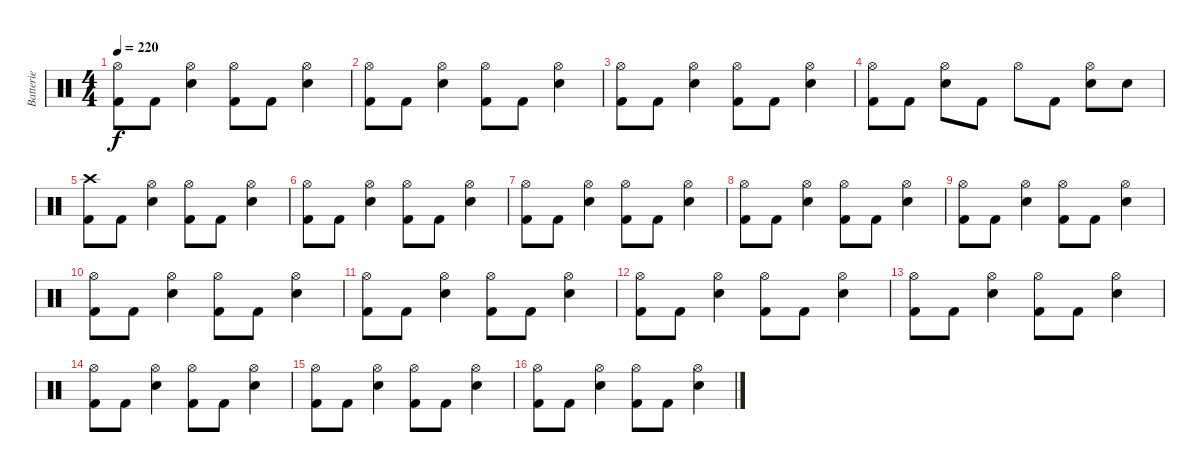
\track ("Batterie" "Batterie") {instrument percussion}
\staff {score}
\articulation defaults
\ts (4 4)
\tempo 220
\clef neutral
\ks c
("Hi-Hat (open)" "Kick (hit) 2").8{dy f} "Kick (hit) 2".8 ("Hi-Hat (open)" "Electric Snare (hit)").4 ("Hi-Hat (open)" "Kick (hit) 2").8 "Kick (hit) 2".8 ("Hi-Hat (open)" "Electric Snare (hit)").4 |
("Hi-Hat (open)" "Kick (hit) 2").8 "Kick (hit) 2".8 ("Hi-Hat (open)" "Electric Snare (hit)").4 ("Hi-Hat (open)" "Kick (hit) 2").8 "Kick (hit) 2".8 ("Hi-Hat (open)" "Electric Snare (hit)").4 |
("Hi-Hat (open)" "Kick (hit) 2").8 "Kick (hit) 2".8 ("Hi-Hat (open)" "Electric Snare (hit)").4 ("Hi-Hat (open)" "Kick (hit) 2").8 "Kick (hit) 2".8 ("Hi-Hat (open)" "Electric Snare (hit)").4 |
("Hi-Hat (open)" "Kick (hit) 2").8 "Kick (hit) 2".8 ("Hi-Hat (open)" "Electric Snare (hit)").8 "Kick (hit) 2".8 "Hi-Hat (open)".8 "Kick (hit) 2".8 ("Hi-Hat (open)" "Electric Snare (hit)").8 "Electric Snare (hit)".8 |
("Crash high (hit)" "Kick (hit) 2").8 "Kick (hit) 2".8 ("Hi-Hat (open)" "Electric Snare (hit)").4 ("Hi-Hat (open)" "Kick (hit) 2").8 "Kick (hit) 2".8 ("Hi-Hat (open)" "Electric Snare (hit)").4 |
("Hi-Hat (open)" "Kick (hit) 2").8 "Kick (hit) 2".8 ("Hi-Hat (open)" "Electric Snare (hit)").4 ("Hi-Hat (open)" "Kick (hit) 2").8 "Kick (hit) 2".8 ("Hi-Hat (open)" "Electric Snare (hit)").4 |
("Hi-Hat (open)" "Kick (hit) 2").8 "Kick (hit) 2".8 ("Hi-Hat (open)" "Electric Snare (hit)").4 ("Hi-Hat (open)" "Kick (hit) 2").8 "Kick (hit) 2".8 ("Hi-Hat (open)" "Electric Snare (hit)").4 |
("Hi-Hat (open)" "Kick (hit) 2").8 "Kick (hit) 2".8 ("Hi-Hat (open)" "Electric Snare (hit)").4 ("Hi-Hat (open)" "Kick (hit) 2").8 "Kick (hit) 2".8 ("Hi-Hat (open)" "Electric Snare (hit)").4 |
("Hi-Hat (open)" "Kick (hit) 2").8 "Kick (hit) 2".8 ("Hi-Hat (open)" "Electric Snare (hit)").4 ("Hi-Hat (open)" "Kick (hit) 2").8 "Kick (hit) 2".8 ("Hi-Hat (open)" "Electric Snare (hit)").4 |
("Hi-Hat (open)" "Kick (hit) 2").8 "Kick (hit) 2".8 ("Hi-Hat (open)" "Electric Snare (hit)").4 ("Hi-Hat (open)" "Kick (hit) 2").8 "Kick (hit) 2".8 ("Hi-Hat (open)" "Electric Snare (hit)").4 |
("Hi-Hat (open)" "Kick (hit) 2").8 "Kick (hit) 2".8 ("Hi-Hat (open)" "Electric Snare (hit)").4 ("Hi-Hat (open)" "Kick (hit) 2").8 "Kick (hit) 2".8 ("Hi-Hat (open)" "Electric Snare (hit)").4 |
("Hi-Hat (open)" "Kick (hit) 2").8 "Kick (hit) 2".8 ("Hi-Hat (open)" "Electric Snare (hit)").4 ("Hi-Hat (open)" "Kick (hit) 2").8 "Kick (hit) 2".8 ("Hi-Hat (open)" "Electric Snare (hit)").4 |
("Hi-Hat (open)" "Kick (hit) 2").8 "Kick (hit) 2".8 ("Hi-Hat (open)" "Electric Snare (hit)").4 ("Hi-Hat (open)" "Kick (hit) 2").8 "Kick (hit) 2".8 ("Hi-Hat (open)" "Electric Snare (hit)").4 |
("Hi-Hat (open)" "Kick (hit) 2").8 "Kick (hit) 2".8 ("Hi-Hat (open)" "Electric Snare (hit)").4 ("Hi-Hat (open)" "Kick (hit) 2").8 "Kick (hit) 2".8 ("Hi-Hat (open)" "Electric Snare (hit)").4 |
("Hi-Hat (open)" "Kick (hit) 2").8 "Kick (hit) 2".8 ("Hi-Hat (open)" "Electric Snare (hit)").4 ("Hi-Hat (open)" "Kick (hit) 2").8 "Kick (hit) 2".8 ("Hi-Hat (open)" "Electric Snare (hit)").4 |
("Hi-Hat (open)" "Kick (hit) 2").8 "Kick (hit) 2".8 ("Hi-Hat (open)" "Electric Snare (hit)").4 ("Hi-Hat (open)" "Kick (hit) 2").8 "Kick (hit) 2".8 ("Hi-Hat (open)" "Electric Snare (hit)").4
